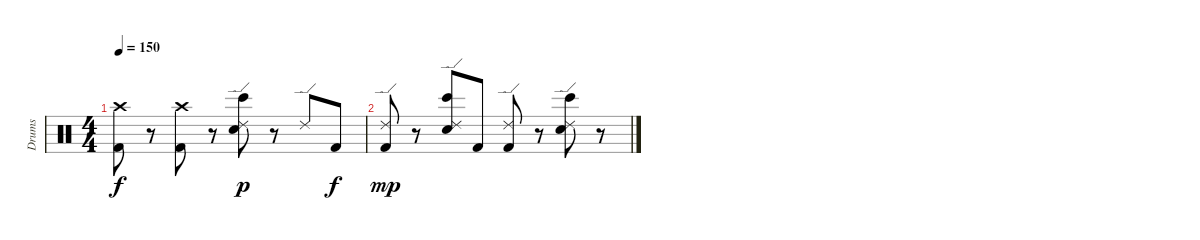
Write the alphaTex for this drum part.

\track ("Drums" "Drums") {instrument percussion}
\staff {score}
\articulation defaults
\ts (4 4)
\tempo 150
\clef neutral
\ks c
("Crash high (hit)" "Kick (hit) 2").8{dy f} r.8 ("Crash high (hit)" "Kick (hit) 2").8 r.8 ("Ride (edge) 2" "Bongo High (hit)" "Electric Snare (hit)").8{dy p} r.8 "Ride (edge) 2".8 "Kick (hit) 2".8{dy f} |
("Ride (edge) 2" "Kick (hit) 2").8{dy mp} r.8 ("Ride (edge) 2" "Bongo High (hit)" "Electric Snare (hit)").8 "Kick (hit) 2".8 ("Ride (edge) 2" "Kick (hit) 2").8 r.8 ("Ride (edge) 2" "Bongo High (hit)" "Electric Snare (hit)").8 r.8
